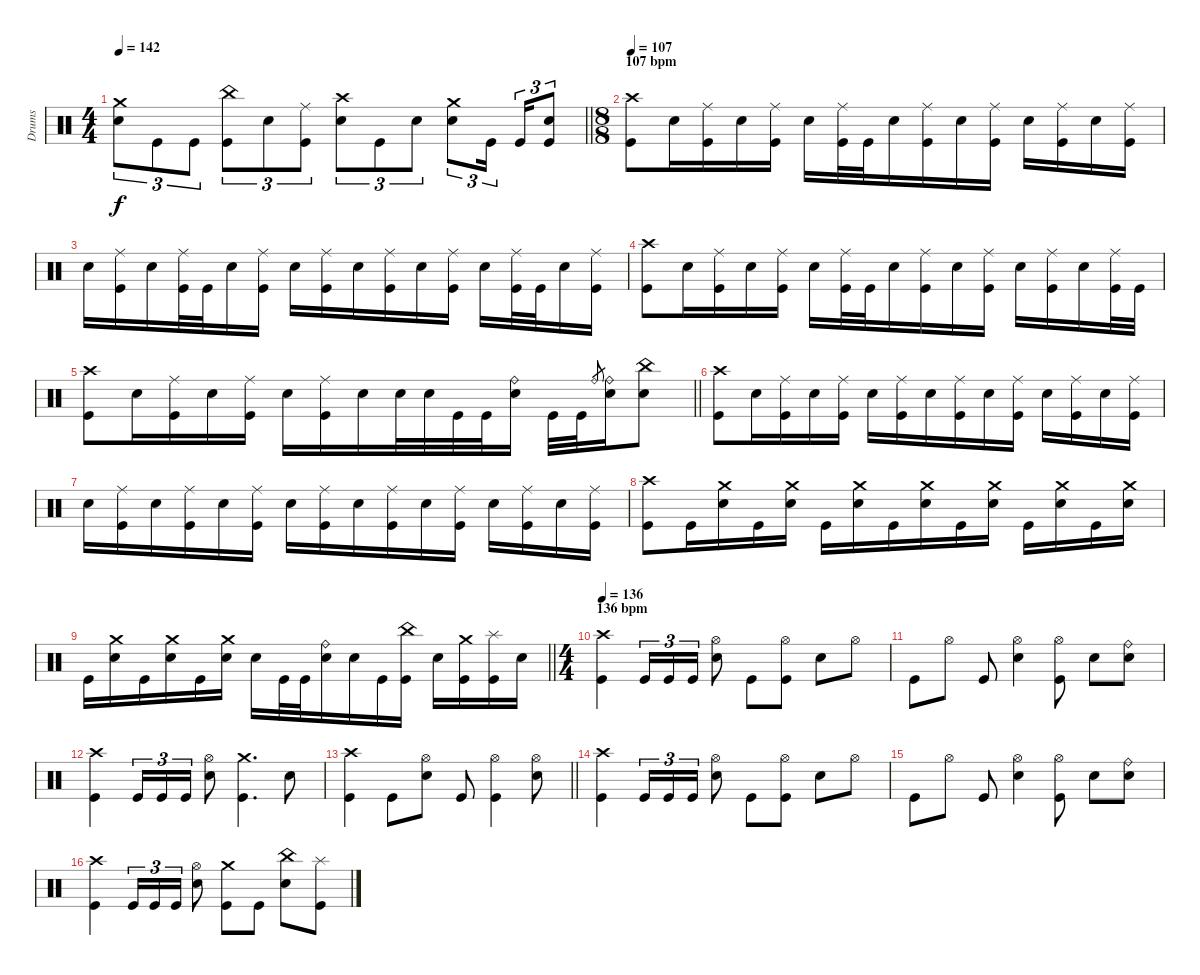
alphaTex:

\track ("Drums" "Drums") {instrument percussion}
\staff
\articulation defaults
\ts (4 4)
\tempo 142
\clef neutral
\barLineRight lightlight
\ks c
("Crash medium (hit)" "Electric Snare (hit)").8{tu (3 2) dy f} "Kick (hit)".8{tu (3 2)} "Kick (hit)".8{tu (3 2)} ("China (hit)" "Kick (hit)").8{tu (3 2)} "Electric Snare (hit)".8{tu (3 2)} ("Ride (middle)" "Kick (hit)").8{tu (3 2)} ("Crash high (hit)" "Electric Snare (hit)").8{tu (3 2)} "Kick (hit)".8{tu (3 2)} "Electric Snare (hit)".8{tu (3 2)} ("Crash medium (hit)" "Electric Snare (hit)").8{tu (3 2)} "Kick (hit)".16{tu (3 2) beam splitsecondary} "Kick (hit)".16{tu (3 2)} ("Electric Snare (hit)" "Kick (hit)").8{tu (3 2)} |
\ts (8 8)
\section ("" "107 bpm")
\tempo 107
("Crash high (hit)" "Kick (hit)").8 "Electric Snare (hit)".16 ("Ride (middle)" "Kick (hit)").16 "Electric Snare (hit)".16 ("Ride (middle)" "Kick (hit)").16 "Electric Snare (hit)".16 ("Ride (middle)" "Kick (hit)").32 "Kick (hit)".32 "Electric Snare (hit)".16 ("Ride (middle)" "Kick (hit)").16 "Electric Snare (hit)".16 ("Ride (middle)" "Kick (hit)").16 "Electric Snare (hit)".16 ("Ride (middle)" "Kick (hit)").16 "Electric Snare (hit)".16 ("Ride (middle)" "Kick (hit)").16 |
"Electric Snare (hit)".16 ("Ride (middle)" "Kick (hit)").16 "Electric Snare (hit)".16 ("Ride (middle)" "Kick (hit)").32 "Kick (hit)".32 "Electric Snare (hit)".16 ("Ride (middle)" "Kick (hit)").16 "Electric Snare (hit)".16 ("Ride (middle)" "Kick (hit)").16 "Electric Snare (hit)".16 ("Ride (middle)" "Kick (hit)").16 "Electric Snare (hit)".16 ("Ride (middle)" "Kick (hit)").16 "Electric Snare (hit)".16 ("Ride (middle)" "Kick (hit)").32 "Kick (hit)".32 "Electric Snare (hit)".16 ("Ride (middle)" "Kick (hit)").16 |
("Crash high (hit)" "Kick (hit)").8 "Electric Snare (hit)".16 ("Ride (middle)" "Kick (hit)").16 "Electric Snare (hit)".16 ("Ride (middle)" "Kick (hit)").16 "Electric Snare (hit)".16 ("Ride (middle)" "Kick (hit)").32 "Kick (hit)".32 "Electric Snare (hit)".16 ("Ride (middle)" "Kick (hit)").16 "Electric Snare (hit)".16 ("Ride (middle)" "Kick (hit)").16 "Electric Snare (hit)".16 ("Ride (middle)" "Kick (hit)").16 "Electric Snare (hit)".16 ("Ride (middle)" "Kick (hit)").32 "Kick (hit)".32 |
\barLineRight lightlight
("Crash high (hit)" "Kick (hit)").8 "Electric Snare (hit)".16 ("Ride (middle)" "Kick (hit)").16 "Electric Snare (hit)".16 ("Ride (middle)" "Kick (hit)").16 "Electric Snare (hit)".16 ("Ride (middle)" "Kick (hit)").16 "Electric Snare (hit)".16 "Electric Snare (hit)".32 "Electric Snare (hit)".32 "Kick (hit)".32 "Kick (hit)".32 ("Ride (bell)" "Electric Snare (hit)").16 "Kick (hit)".32 "Kick (hit)".32 "Ride (bell)".8{gr} ("Ride (bell)" "Electric Snare (hit)").16 ("China (hit)" "Electric Snare (hit)").8 |
("Crash high (hit)" "Kick (hit)").8 "Electric Snare (hit)".16 ("Ride (middle)" "Kick (hit)").16 "Electric Snare (hit)".16 ("Ride (middle)" "Kick (hit)").16 "Electric Snare (hit)".16 ("Ride (middle)" "Kick (hit)").16 "Electric Snare (hit)".16 ("Ride (middle)" "Kick (hit)").16 "Electric Snare (hit)".16 ("Ride (middle)" "Kick (hit)").16 "Electric Snare (hit)".16 ("Ride (middle)" "Kick (hit)").16 "Electric Snare (hit)".16 ("Ride (middle)" "Kick (hit)").16 |
"Electric Snare (hit)".16 ("Ride (middle)" "Kick (hit)").16 "Electric Snare (hit)".16 ("Ride (middle)" "Kick (hit)").16 "Electric Snare (hit)".16 ("Ride (middle)" "Kick (hit)").16 "Electric Snare (hit)".16 ("Ride (middle)" "Kick (hit)").16 "Electric Snare (hit)".16 ("Ride (middle)" "Kick (hit)").16 "Electric Snare (hit)".16 ("Ride (middle)" "Kick (hit)").16 "Electric Snare (hit)".16 ("Ride (middle)" "Kick (hit)").16 "Electric Snare (hit)".16 ("Ride (middle)" "Kick (hit)").16 |
("Crash high (hit)" "Kick (hit)").8 "Kick (hit)".16 ("Crash medium (hit)" "Electric Snare (hit)").16 "Kick (hit)".16 ("Crash medium (hit)" "Electric Snare (hit)").16 "Kick (hit)".16 ("Crash medium (hit)" "Electric Snare (hit)").16 "Kick (hit)".16 ("Crash medium (hit)" "Electric Snare (hit)").16 "Kick (hit)".16 ("Crash medium (hit)" "Electric Snare (hit)").16 "Kick (hit)".16 ("Crash medium (hit)" "Electric Snare (hit)").16 "Kick (hit)".16 ("Crash medium (hit)" "Electric Snare (hit)").16 |
\barLineRight lightlight "Kick (hit)".16
("Crash medium (hit)" "Electric Snare (hit)").16 "Kick (hit)".16 ("Crash medium (hit)" "Electric Snare (hit)").16 "Kick (hit)".16 ("Crash medium (hit)" "Electric Snare (hit)").16 "Electric Snare (hit)".16 "Kick (hit)".32 "Kick (hit)".32 ("Ride (bell)" "Electric Snare (hit)").16 "Electric Snare (hit)".16 "Kick (hit)".16 ("China (hit)" "Kick (hit)").16 "Electric Snare (hit)".16 ("Crash medium (hit)" "Kick (hit)").16 ("Splash (hit)" "Kick (hit)").16 "Electric Snare (hit)".16 |
\ts (4 4)
\section ("" "136 bpm")
\tempo 136
("Crash high (hit)" "Kick (hit)").4 "Kick (hit)".16{tu (3 2)} "Kick (hit)".16{tu (3 2)} "Kick (hit)".16{tu (3 2)} ("Hi-Hat (open)" "Electric Snare (hit)").8 "Kick (hit)".8 ("Hi-Hat (open)" "Kick (hit)").8 "Electric Snare (hit)".8 "Hi-Hat (open)".8 |
"Kick (hit)".8 "Hi-Hat (open)".8 "Kick (hit)".8 ("Hi-Hat (open)" "Electric Snare (hit)").4 ("Hi-Hat (open)" "Kick (hit)").8 "Electric Snare (hit)".8 ("Ride (bell)" "Electric Snare (hit)").8 |
("Crash high (hit)" "Kick (hit)").4 "Kick (hit)".16{tu (3 2)} "Kick (hit)".16{tu (3 2)} "Kick (hit)".16{tu (3 2)} ("Hi-Hat (open)" "Electric Snare (hit)").8 ("Crash medium (hit)" "Kick (hit)").4{d} "Electric Snare (hit)".8 |
\barLineRight lightlight
("Crash high (hit)" "Kick (hit)").4 "Kick (hit)".8 ("Hi-Hat (open)" "Electric Snare (hit)").8 "Kick (hit)".8 ("Hi-Hat (open)" "Kick (hit)").4 ("Hi-Hat (open)" "Electric Snare (hit)").8 |
("Crash high (hit)" "Kick (hit)").4 "Kick (hit)".16{tu (3 2)} "Kick (hit)".16{tu (3 2)} "Kick (hit)".16{tu (3 2)} ("Hi-Hat (open)" "Electric Snare (hit)").8 "Kick (hit)".8 ("Hi-Hat (open)" "Kick (hit)").8 "Electric Snare (hit)".8 "Hi-Hat (open)".8 |
"Kick (hit)".8 "Hi-Hat (open)".8 "Kick (hit)".8 ("Hi-Hat (open)" "Electric Snare (hit)").4 ("Hi-Hat (open)" "Kick (hit)").8 "Electric Snare (hit)".8 ("Ride (bell)" "Electric Snare (hit)").8 |
("Crash high (hit)" "Kick (hit)").4 "Kick (hit)".16{tu (3 2)} "Kick (hit)".16{tu (3 2)} "Kick (hit)".16{tu (3 2)} ("Hi-Hat (open)" "Electric Snare (hit)").8 ("Crash medium (hit)" "Kick (hit)").8 "Kick (hit)".8 ("China (hit)" "Electric Snare (hit)").8 ("Splash (hit)" "Kick (hit)").8
